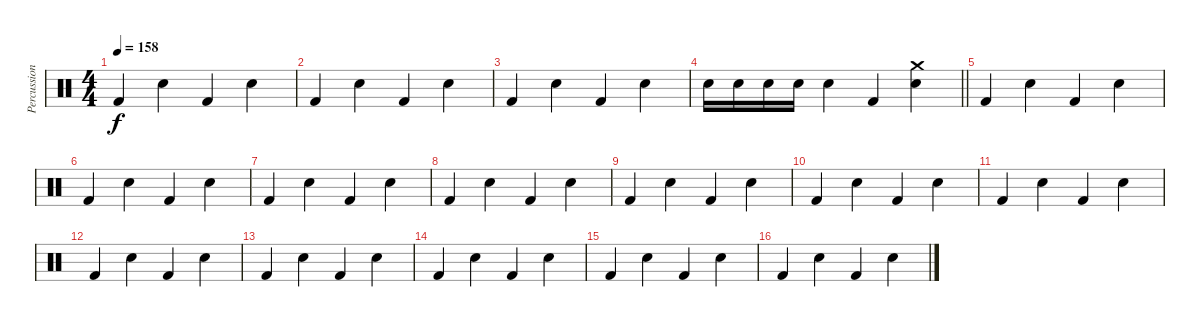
\track ("Percussions" "Percussion") {instrument percussion}
\staff {score}
\articulation defaults
\ts (4 4)
\tempo 158
\clef neutral
\ks c "Kick (hit) 2".4{dy f volume 16} "Electric Snare (hit)".4 "Kick (hit) 2".4 "Electric Snare (hit)".4
|
"Kick (hit) 2".4 "Electric Snare (hit)".4 "Kick (hit) 2".4 "Electric Snare (hit)".4 |
"Kick (hit) 2".4{volume 16} "Electric Snare (hit)".4 "Kick (hit) 2".4 "Electric Snare (hit)".4 |
\barLineRight lightlight "Electric Snare (hit)".16 "Electric Snare (hit)".16 "Electric Snare (hit)".16 "Electric Snare (hit)".16 "Electric Snare (hit)".4 "Kick (hit) 2".4
("Crash medium (hit)" "Electric Snare (hit)").4 |
"Kick (hit) 2".4{volume 16} "Electric Snare (hit)".4 "Kick (hit) 2".4 "Electric Snare (hit)".4 |
"Kick (hit) 2".4 "Electric Snare (hit)".4 "Kick (hit) 2".4 "Electric Snare (hit)".4 |
"Kick (hit) 2".4{volume 16} "Electric Snare (hit)".4 "Kick (hit) 2".4 "Electric Snare (hit)".4 |
"Kick (hit) 2".4 "Electric Snare (hit)".4 "Kick (hit) 2".4 "Electric Snare (hit)".4 |
"Kick (hit) 2".4{volume 16} "Electric Snare (hit)".4 "Kick (hit) 2".4 "Electric Snare (hit)".4 |
"Kick (hit) 2".4 "Electric Snare (hit)".4 "Kick (hit) 2".4 "Electric Snare (hit)".4 |
"Kick (hit) 2".4{volume 16} "Electric Snare (hit)".4 "Kick (hit) 2".4 "Electric Snare (hit)".4 |
"Kick (hit) 2".4 "Electric Snare (hit)".4 "Kick (hit) 2".4 "Electric Snare (hit)".4 |
"Kick (hit) 2".4{volume 16} "Electric Snare (hit)".4 "Kick (hit) 2".4 "Electric Snare (hit)".4 |
"Kick (hit) 2".4 "Electric Snare (hit)".4 "Kick (hit) 2".4 "Electric Snare (hit)".4 |
"Kick (hit) 2".4{volume 16} "Electric Snare (hit)".4 "Kick (hit) 2".4 "Electric Snare (hit)".4 |
"Kick (hit) 2".4 "Electric Snare (hit)".4 "Kick (hit) 2".4 "Electric Snare (hit)".4
